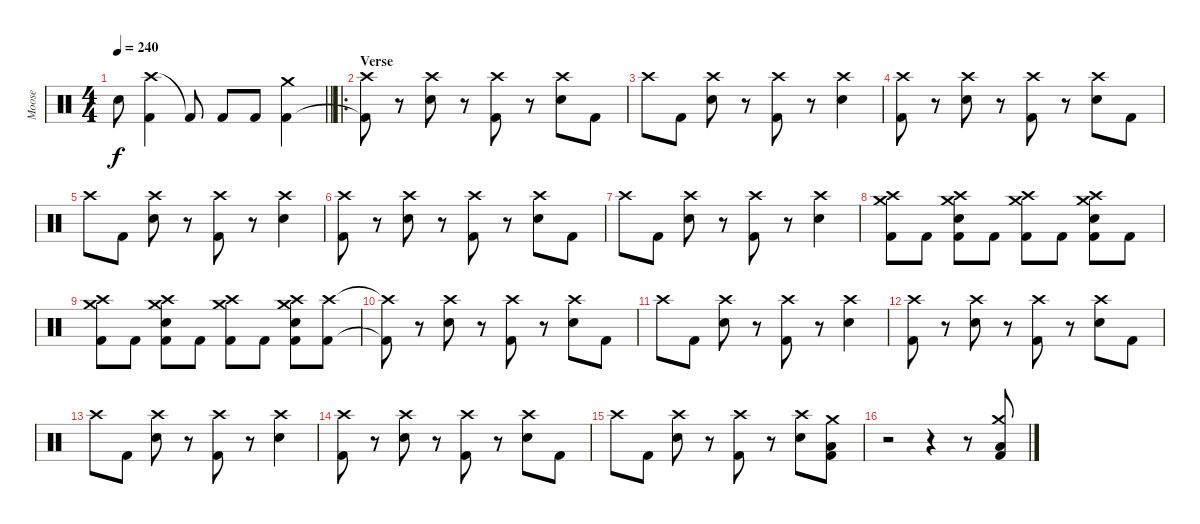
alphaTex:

\track ("Moose" "Moose") {instrument percussion}
\staff {score}
\articulation defaults
\ts (4 4)
\tempo 240
\clef neutral
\barLineRight lightlight
\ks c "Snare (hit)"{t}.8{dy f}
("Crash high (hit)" "Kick (hit) 2").4 "Kick (hit) 2"{t}.8 "Kick (hit) 2".8 "Kick (hit) 2".8 ("Crash medium (hit)" "Kick (hit) 2").4 |
\ro
\section ("" "Verse")
("Crash high (hit)" "Kick (hit) 2"{t}).8 r.8 ("Crash high (hit)" "Snare (hit) 2").8 r.8 ("Crash high (hit)" "Kick (hit) 2").8 r.8 ("Crash high (hit)" "Snare (hit) 2").8 "Kick (hit) 2".8 |
"Crash high (hit)".8 "Kick (hit) 2".8 ("Crash high (hit)" "Snare (hit) 2").8 r.8 ("Crash high (hit)" "Kick (hit) 2").8 r.8 ("Crash high (hit)" "Snare (hit) 2").4 |
("Crash high (hit)" "Kick (hit) 2").8 r.8 ("Crash high (hit)" "Snare (hit) 2").8 r.8 ("Crash high (hit)" "Kick (hit) 2").8 r.8 ("Crash high (hit)" "Snare (hit) 2").8 "Kick (hit) 2".8 |
"Crash high (hit)".8 "Kick (hit) 2".8 ("Crash high (hit)" "Snare (hit) 2").8 r.8 ("Crash high (hit)" "Kick (hit) 2").8 r.8 ("Crash high (hit)" "Snare (hit) 2").4 |
("Crash high (hit)" "Kick (hit) 2").8 r.8 ("Crash high (hit)" "Snare (hit) 2").8 r.8 ("Crash high (hit)" "Kick (hit) 2").8 r.8 ("Crash high (hit)" "Snare (hit) 2").8 "Kick (hit) 2".8 |
"Crash high (hit)".8 "Kick (hit) 2".8 ("Crash high (hit)" "Snare (hit) 2").8 r.8 ("Crash high (hit)" "Kick (hit) 2").8 r.8 ("Crash high (hit)" "Snare (hit) 2").4 |
("Crash medium (hit)" "Crash high (hit)" "Kick (hit) 2").8 "Kick (hit) 2".8 ("Crash medium (hit)" "Crash high (hit)" "Snare (hit) 2" "Kick (hit) 2").8 "Kick (hit) 2".8 ("Crash medium (hit)" "Crash high (hit)" "Kick (hit) 2").8 "Kick (hit) 2".8 ("Crash medium (hit)" "Crash high (hit)" "Snare (hit) 2" "Kick (hit) 2").8 "Kick (hit) 2".8 |
("Crash medium (hit)" "Crash high (hit)" "Kick (hit) 2").8 "Kick (hit) 2".8 ("Crash medium (hit)" "Crash high (hit)" "Snare (hit) 2" "Kick (hit) 2").8 "Kick (hit) 2".8 ("Crash medium (hit)" "Crash high (hit)" "Kick (hit) 2").8 "Kick (hit) 2".8 ("Crash medium (hit)" "Crash high (hit)" "Snare (hit) 2" "Kick (hit) 2").8 ("Crash high (hit)" "Kick (hit) 2").8 |
("Crash high (hit)"{t} "Kick (hit) 2"{t}).8 r.8 ("Crash high (hit)" "Snare (hit) 2").8 r.8 ("Crash high (hit)" "Kick (hit) 2").8 r.8 ("Crash high (hit)" "Snare (hit) 2").8 "Kick (hit) 2".8 |
"Crash high (hit)".8 "Kick (hit) 2".8 ("Crash high (hit)" "Snare (hit) 2").8 r.8 ("Crash high (hit)" "Kick (hit) 2").8 r.8 ("Crash high (hit)" "Snare (hit) 2").4 |
("Crash high (hit)" "Kick (hit) 2").8 r.8 ("Crash high (hit)" "Snare (hit) 2").8 r.8 ("Crash high (hit)" "Kick (hit) 2").8 r.8 ("Crash high (hit)" "Snare (hit) 2").8 "Kick (hit) 2".8 |
"Crash high (hit)".8 "Kick (hit) 2".8 ("Crash high (hit)" "Snare (hit) 2").8 r.8 ("Crash high (hit)" "Kick (hit) 2").8 r.8 ("Crash high (hit)" "Snare (hit) 2").4 |
("Crash high (hit)" "Kick (hit) 2").8 r.8 ("Crash high (hit)" "Snare (hit) 2").8 r.8 ("Crash high (hit)" "Kick (hit) 2").8 r.8 ("Crash high (hit)" "Snare (hit) 2").8 "Kick (hit) 2".8 |
"Crash high (hit)".8 "Kick (hit) 2".8 ("Crash high (hit)" "Snare (hit) 2").8 r.8 ("Crash high (hit)" "Kick (hit) 2").8 r.8 ("Crash high (hit)" "Snare (hit) 2").8 ("Crash medium (hit)" "Low Floor Tom (hit)" "Kick (hit) 2").8 |
r.2 r.4 r.8 ("Crash medium (hit)" "Low Floor Tom (hit)" "Kick (hit) 2").8
